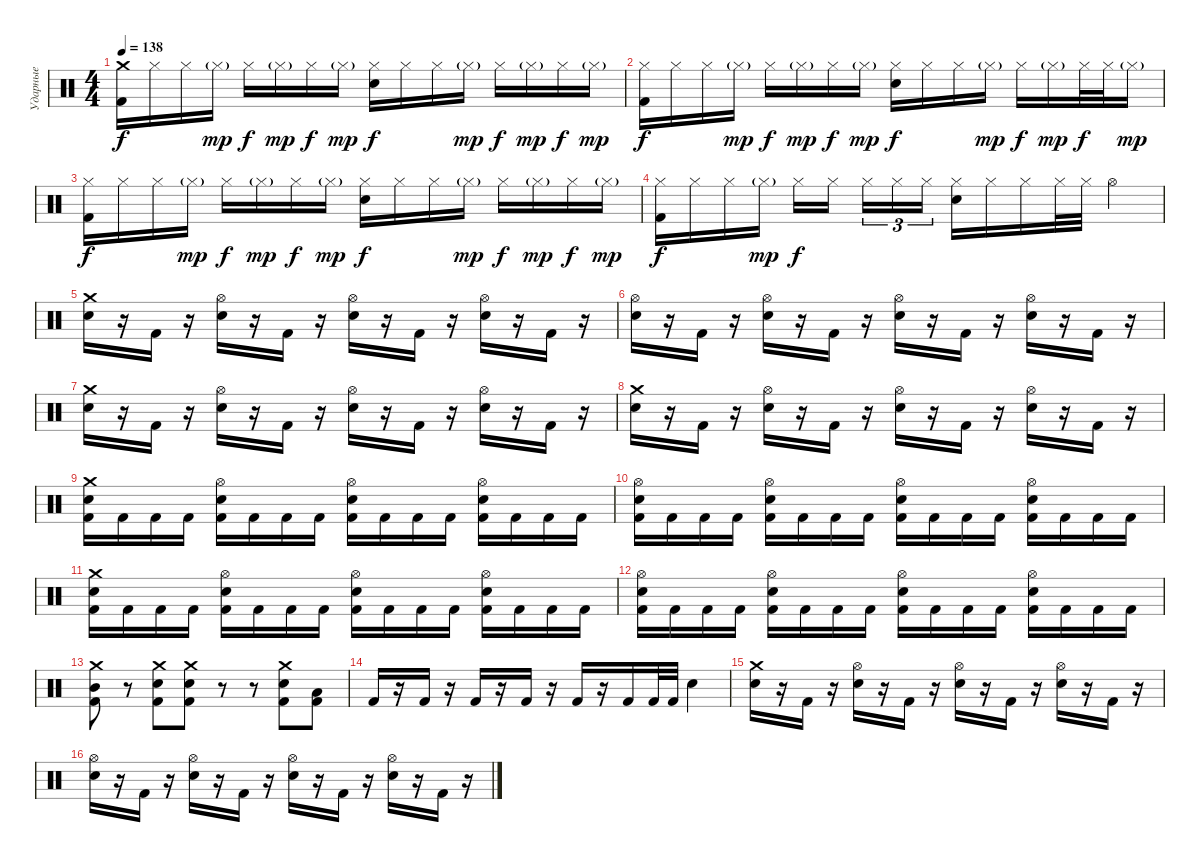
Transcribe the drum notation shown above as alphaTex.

\track ("Ударные" "Ударные") {instrument percussion}
\staff {score}
\articulation defaults
\ts (4 4)
\tempo 138
\clef neutral
\ks c
("Crash medium (hit)" "Kick (hit) 2").16{dy f} "Hi-Hat (closed)".16 "Hi-Hat (closed)".16 "Hi-Hat (closed)"{g}.16{dy mp} "Hi-Hat (closed)".16{dy f} "Hi-Hat (closed)"{g}.16{dy mp} "Hi-Hat (closed)".16{dy f} "Hi-Hat (closed)"{g}.16{dy mp} ("Hi-Hat (closed)" "Snare (hit) 2").16{dy f} "Hi-Hat (closed)".16 "Hi-Hat (closed)".16 "Hi-Hat (closed)"{g}.16{dy mp} "Hi-Hat (closed)".16{dy f} "Hi-Hat (closed)"{g}.16{dy mp} "Hi-Hat (closed)".16{dy f} "Hi-Hat (closed)"{g}.16{dy mp} |
("Hi-Hat (closed)" "Kick (hit) 2").16{dy f} "Hi-Hat (closed)".16 "Hi-Hat (closed)".16 "Hi-Hat (closed)"{g}.16{dy mp} "Hi-Hat (closed)".16{dy f} "Hi-Hat (closed)"{g}.16{dy mp} "Hi-Hat (closed)".16{dy f} "Hi-Hat (closed)"{g}.16{dy mp} ("Hi-Hat (closed)" "Snare (hit) 2").16{dy f} "Hi-Hat (closed)".16 "Hi-Hat (closed)".16 "Hi-Hat (closed)"{g}.16{dy mp} "Hi-Hat (closed)".16{dy f} "Hi-Hat (closed)"{g}.16{dy mp} "Hi-Hat (closed)".32{dy f} "Hi-Hat (closed)".32 "Hi-Hat (closed)"{g}.16{dy mp} |
("Hi-Hat (closed)" "Kick (hit) 2").16{dy f} "Hi-Hat (closed)".16 "Hi-Hat (closed)".16 "Hi-Hat (closed)"{g}.16{dy mp} "Hi-Hat (closed)".16{dy f} "Hi-Hat (closed)"{g}.16{dy mp} "Hi-Hat (closed)".16{dy f} "Hi-Hat (closed)"{g}.16{dy mp} ("Hi-Hat (closed)" "Snare (hit) 2").16{dy f} "Hi-Hat (closed)".16 "Hi-Hat (closed)".16 "Hi-Hat (closed)"{g}.16{dy mp} "Hi-Hat (closed)".16{dy f} "Hi-Hat (closed)"{g}.16{dy mp} "Hi-Hat (closed)".16{dy f} "Hi-Hat (closed)"{g}.16{dy mp} |
("Hi-Hat (closed)" "Kick (hit) 2").16{dy f} "Hi-Hat (closed)".16 "Hi-Hat (closed)".16 "Hi-Hat (closed)"{g}.16{dy mp} "Hi-Hat (closed)".16{dy f} "Hi-Hat (closed)".16{beam splitsecondary} "Hi-Hat (closed)".16{tu (3 2)} "Hi-Hat (closed)".16{tu (3 2)} "Hi-Hat (closed)".16{tu (3 2)} ("Hi-Hat (closed)" "Snare (hit) 2").16 "Hi-Hat (closed)".16 "Hi-Hat (closed)".16 "Hi-Hat (closed)".32 "Hi-Hat (closed)".32 "Hi-Hat (open)".4 |
("Crash medium (hit)" "Snare (hit) 2").16 r.16 "Kick (hit) 2".16 r.16 ("Hi-Hat (open)" "Snare (hit) 2").16 r.16 "Kick (hit) 2".16 r.16 ("Hi-Hat (open)" "Snare (hit) 2").16 r.16 "Kick (hit) 2".16 r.16 ("Hi-Hat (open)" "Snare (hit) 2").16 r.16 "Kick (hit) 2".16 r.16 |
("Hi-Hat (open)" "Snare (hit) 2").16 r.16 "Kick (hit) 2".16 r.16 ("Hi-Hat (open)" "Snare (hit) 2").16 r.16 "Kick (hit) 2".16 r.16 ("Hi-Hat (open)" "Snare (hit) 2").16 r.16 "Kick (hit) 2".16 r.16 ("Hi-Hat (open)" "Snare (hit) 2").16 r.16 "Kick (hit) 2".16 r.16 |
("Crash medium (hit)" "Snare (hit) 2").16 r.16 "Kick (hit) 2".16 r.16 ("Hi-Hat (open)" "Snare (hit) 2").16 r.16 "Kick (hit) 2".16 r.16 ("Hi-Hat (open)" "Snare (hit) 2").16 r.16 "Kick (hit) 2".16 r.16 ("Hi-Hat (open)" "Snare (hit) 2").16 r.16 "Kick (hit) 2".16 r.16 |
("Crash medium (hit)" "Snare (hit) 2").16 r.16 "Kick (hit) 2".16 r.16 ("Hi-Hat (open)" "Snare (hit) 2").16 r.16 "Kick (hit) 2".16 r.16 ("Hi-Hat (open)" "Snare (hit) 2").16 r.16 "Kick (hit) 2".16 r.16 ("Hi-Hat (open)" "Snare (hit) 2").16 r.16 "Kick (hit) 2".16 r.16 |
("Crash medium (hit)" "Snare (hit) 2" "Kick (hit) 2").16 "Kick (hit) 2".16 "Kick (hit) 2".16 "Kick (hit) 2".16 ("Hi-Hat (open)" "Snare (hit) 2" "Kick (hit) 2").16 "Kick (hit) 2".16 "Kick (hit) 2".16 "Kick (hit) 2".16 ("Hi-Hat (open)" "Snare (hit) 2" "Kick (hit) 2").16 "Kick (hit) 2".16 "Kick (hit) 2".16 "Kick (hit) 2".16 ("Hi-Hat (open)" "Snare (hit) 2" "Kick (hit) 2").16 "Kick (hit) 2".16 "Kick (hit) 2".16 "Kick (hit) 2".16 |
("Hi-Hat (open)" "Snare (hit) 2" "Kick (hit) 2").16 "Kick (hit) 2".16 "Kick (hit) 2".16 "Kick (hit) 2".16 ("Hi-Hat (open)" "Snare (hit) 2" "Kick (hit) 2").16 "Kick (hit) 2".16 "Kick (hit) 2".16 "Kick (hit) 2".16 ("Hi-Hat (open)" "Snare (hit) 2" "Kick (hit) 2").16 "Kick (hit) 2".16 "Kick (hit) 2".16 "Kick (hit) 2".16 ("Hi-Hat (open)" "Snare (hit) 2" "Kick (hit) 2").16 "Kick (hit) 2".16 "Kick (hit) 2".16 "Kick (hit) 2".16 |
("Crash medium (hit)" "Snare (hit) 2" "Kick (hit) 2").16 "Kick (hit) 2".16 "Kick (hit) 2".16 "Kick (hit) 2".16 ("Hi-Hat (open)" "Snare (hit) 2" "Kick (hit) 2").16 "Kick (hit) 2".16 "Kick (hit) 2".16 "Kick (hit) 2".16 ("Hi-Hat (open)" "Snare (hit) 2" "Kick (hit) 2").16 "Kick (hit) 2".16 "Kick (hit) 2".16 "Kick (hit) 2".16 ("Hi-Hat (open)" "Snare (hit) 2" "Kick (hit) 2").16 "Kick (hit) 2".16 "Kick (hit) 2".16 "Kick (hit) 2".16 |
("Hi-Hat (open)" "Snare (hit) 2" "Kick (hit) 2").16 "Kick (hit) 2".16 "Kick (hit) 2".16 "Kick (hit) 2".16 ("Hi-Hat (open)" "Snare (hit) 2" "Kick (hit) 2").16 "Kick (hit) 2".16 "Kick (hit) 2".16 "Kick (hit) 2".16 ("Hi-Hat (open)" "Snare (hit) 2" "Kick (hit) 2").16 "Kick (hit) 2".16 "Kick (hit) 2".16 "Kick (hit) 2".16 ("Hi-Hat (open)" "Snare (hit) 2" "Kick (hit) 2").16 "Kick (hit) 2".16 "Kick (hit) 2".16 "Kick (hit) 2".16 |
("Crash medium (hit)" "Mid Tom (hit)" "Kick (hit) 2").8 r.8 ("Crash medium (hit)" "Snare (hit) 2" "Kick (hit) 2").8 ("Crash medium (hit)" "Snare (hit) 2" "Kick (hit) 2").8 r.8 r.8 ("Crash medium (hit)" "Snare (hit) 2" "Kick (hit) 2").8 ("Low Floor Tom (hit)" "Kick (hit) 2").8 |
"Kick (hit) 2".16 r.16 "Kick (hit) 2".16 r.16 "Kick (hit) 2".16 r.16 "Kick (hit) 2".16 r.16 "Kick (hit) 2".16 r.16 "Kick (hit) 2".16 "Kick (hit) 2".32 "Kick (hit) 2".32 "Snare (hit) 2".4 |
("Crash medium (hit)" "Snare (hit) 2").16 r.16 "Kick (hit) 2".16 r.16 ("Hi-Hat (open)" "Snare (hit) 2").16 r.16 "Kick (hit) 2".16 r.16 ("Hi-Hat (open)" "Snare (hit) 2").16 r.16 "Kick (hit) 2".16 r.16 ("Hi-Hat (open)" "Snare (hit) 2").16 r.16 "Kick (hit) 2".16 r.16 |
("Hi-Hat (open)" "Snare (hit) 2").16 r.16 "Kick (hit) 2".16 r.16 ("Hi-Hat (open)" "Snare (hit) 2").16 r.16 "Kick (hit) 2".16 r.16 ("Hi-Hat (open)" "Snare (hit) 2").16 r.16 "Kick (hit) 2".16 r.16 ("Hi-Hat (open)" "Snare (hit) 2").16 r.16 "Kick (hit) 2".16 r.16
